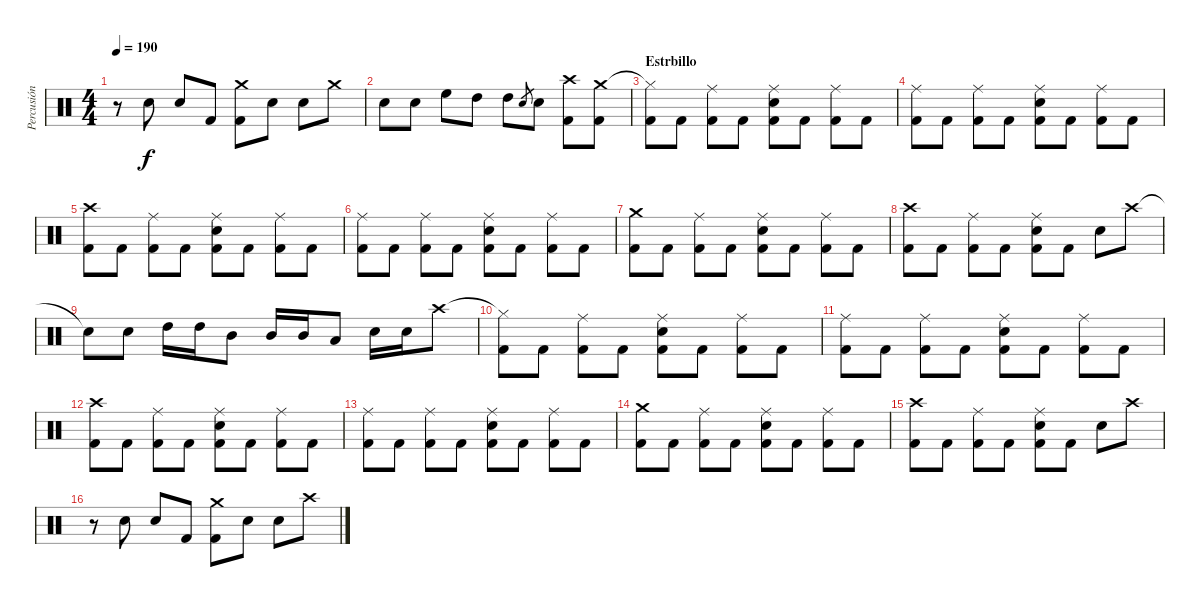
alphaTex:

\track ("Percusión" "Percusión") {instrument percussion}
\staff {score}
\articulation defaults
\ts (4 4)
\tempo 190
\clef neutral
\ks c
r.8{dy f} "Snare (hit) 2".8 "Snare (hit) 2".8 "Kick (hit) 2".8 ("Crash medium (hit)" "Kick (hit) 2").8 "Snare (hit) 2".8 "Snare (hit) 2".8 "Crash medium (hit)".8 |
"Snare (hit) 2".8 "Snare (hit) 2".8 "High Floor Tom (hit)".8 "High Tom (hit)".8 "High Tom (hit)".8 "Snare (hit) 2".8{gr} "Snare (hit) 2".8 ("Crash high (hit)" "Kick (hit) 2").8 ("Crash medium (hit)" "Kick (hit) 2").8 |
\section ("" "Estrbillo")
("Hi-Hat (closed)"{t} "Kick (hit) 2").8 "Kick (hit) 2".8 ("Ride (middle)" "Kick (hit) 2").8 "Kick (hit) 2".8 ("Ride (middle)" "Snare (hit) 2" "Kick (hit) 2").8 "Kick (hit) 2".8 ("Ride (middle)" "Kick (hit) 2").8 "Kick (hit) 2".8 |
("Ride (middle)" "Kick (hit) 2").8 "Kick (hit) 2".8 ("Ride (middle)" "Kick (hit) 2").8 "Kick (hit) 2".8 ("Ride (middle)" "Snare (hit) 2" "Kick (hit) 2").8 "Kick (hit) 2".8 ("Ride (middle)" "Kick (hit) 2").8 "Kick (hit) 2".8 |
("Crash high (hit)" "Kick (hit) 2").8 "Kick (hit) 2".8 ("Ride (middle)" "Kick (hit) 2").8 "Kick (hit) 2".8 ("Ride (middle)" "Snare (hit) 2" "Kick (hit) 2").8 "Kick (hit) 2".8 ("Ride (middle)" "Kick (hit) 2").8 "Kick (hit) 2".8 |
("Ride (middle)" "Kick (hit) 2").8 "Kick (hit) 2".8 ("Ride (middle)" "Kick (hit) 2").8 "Kick (hit) 2".8 ("Ride (middle)" "Snare (hit) 2" "Kick (hit) 2").8 "Kick (hit) 2".8 ("Ride (middle)" "Kick (hit) 2").8 "Kick (hit) 2".8 |
("Crash medium (hit)" "Kick (hit) 2").8 "Kick (hit) 2".8 ("Ride (middle)" "Kick (hit) 2").8 "Kick (hit) 2".8 ("Ride (middle)" "Snare (hit) 2" "Kick (hit) 2").8 "Kick (hit) 2".8 ("Ride (middle)" "Kick (hit) 2").8 "Kick (hit) 2".8 |
("Crash high (hit)" "Kick (hit) 2").8 "Kick (hit) 2".8 ("Ride (middle)" "Kick (hit) 2").8 "Kick (hit) 2".8 ("Ride (middle)" "Snare (hit) 2" "Kick (hit) 2").8 "Kick (hit) 2".8 "Snare (hit) 2".8 "Crash high (hit)".8 |
"Snare (hit)"{t}.8 "Snare (hit) 2".8 "High Tom (hit)".16 "High Tom (hit)".16 "Mid Tom (hit)".8 "Mid Tom (hit)".16 "Mid Tom (hit)".16 "Low Tom (hit)".8 "Snare (hit) 2".16 "Snare (hit) 2".16 "Crash high (hit)".8 |
("Hi-Hat (closed)"{t} "Kick (hit) 2").8 "Kick (hit) 2".8 ("Ride (middle)" "Kick (hit) 2").8 "Kick (hit) 2".8 ("Ride (middle)" "Snare (hit) 2" "Kick (hit) 2").8 "Kick (hit) 2".8 ("Ride (middle)" "Kick (hit) 2").8 "Kick (hit) 2".8 |
("Ride (middle)" "Kick (hit) 2").8 "Kick (hit) 2".8 ("Ride (middle)" "Kick (hit) 2").8 "Kick (hit) 2".8 ("Ride (middle)" "Snare (hit) 2" "Kick (hit) 2").8 "Kick (hit) 2".8 ("Ride (middle)" "Kick (hit) 2").8 "Kick (hit) 2".8 |
("Crash high (hit)" "Kick (hit) 2").8 "Kick (hit) 2".8 ("Ride (middle)" "Kick (hit) 2").8 "Kick (hit) 2".8 ("Ride (middle)" "Snare (hit) 2" "Kick (hit) 2").8 "Kick (hit) 2".8 ("Ride (middle)" "Kick (hit) 2").8 "Kick (hit) 2".8 |
("Ride (middle)" "Kick (hit) 2").8 "Kick (hit) 2".8 ("Ride (middle)" "Kick (hit) 2").8 "Kick (hit) 2".8 ("Ride (middle)" "Snare (hit) 2" "Kick (hit) 2").8 "Kick (hit) 2".8 ("Ride (middle)" "Kick (hit) 2").8 "Kick (hit) 2".8 |
("Crash medium (hit)" "Kick (hit) 2").8 "Kick (hit) 2".8 ("Ride (middle)" "Kick (hit) 2").8 "Kick (hit) 2".8 ("Ride (middle)" "Snare (hit) 2" "Kick (hit) 2").8 "Kick (hit) 2".8 ("Ride (middle)" "Kick (hit) 2").8 "Kick (hit) 2".8 |
("Crash high (hit)" "Kick (hit) 2").8 "Kick (hit) 2".8 ("Ride (middle)" "Kick (hit) 2").8 "Kick (hit) 2".8 ("Ride (middle)" "Snare (hit) 2" "Kick (hit) 2").8 "Kick (hit) 2".8 "Snare (hit) 2".8 "Crash high (hit)".8 |
r.8 "Snare (hit) 2".8 "Snare (hit) 2".8 "Kick (hit) 2".8 ("Crash medium (hit)" "Kick (hit) 2").8 "Snare (hit) 2".8 "Snare (hit) 2".8 "Crash high (hit)".8
